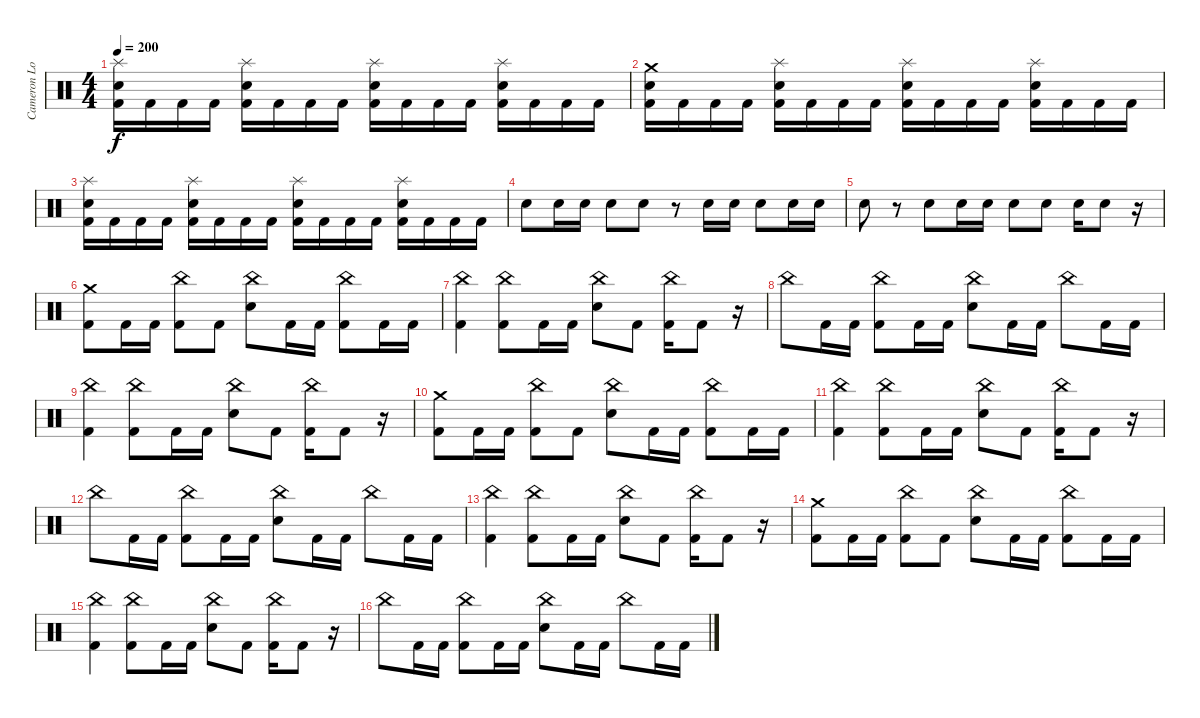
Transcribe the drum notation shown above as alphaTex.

\track ("Cameron Losch - drums" "Cameron Lo") {instrument percussion}
\staff {score}
\articulation defaults
\ts (4 4)
\tempo 200
\clef neutral
\ks c
("Splash (hit)" "Electric Snare (hit)" "Kick (hit) 2").16{dy f} "Kick (hit) 2".16 "Kick (hit) 2".16 "Kick (hit) 2".16 ("Splash (hit)" "Electric Snare (hit)" "Kick (hit) 2").16 "Kick (hit) 2".16 "Kick (hit) 2".16 "Kick (hit) 2".16 ("Splash (hit)" "Electric Snare (hit)" "Kick (hit) 2").16 "Kick (hit) 2".16 "Kick (hit) 2".16 "Kick (hit) 2".16 ("Splash (hit)" "Electric Snare (hit)" "Kick (hit) 2").16 "Kick (hit) 2".16 "Kick (hit) 2".16 "Kick (hit) 2".16 |
("Crash medium (hit)" "Electric Snare (hit)" "Kick (hit) 2").16 "Kick (hit) 2".16 "Kick (hit) 2".16 "Kick (hit) 2".16 ("Splash (hit)" "Electric Snare (hit)" "Kick (hit) 2").16 "Kick (hit) 2".16 "Kick (hit) 2".16 "Kick (hit) 2".16 ("Splash (hit)" "Electric Snare (hit)" "Kick (hit) 2").16 "Kick (hit) 2".16 "Kick (hit) 2".16 "Kick (hit) 2".16 ("Splash (hit)" "Electric Snare (hit)" "Kick (hit) 2").16 "Kick (hit) 2".16 "Kick (hit) 2".16 "Kick (hit) 2".16 |
("Splash (hit)" "Electric Snare (hit)" "Kick (hit) 2").16 "Kick (hit) 2".16 "Kick (hit) 2".16 "Kick (hit) 2".16 ("Splash (hit)" "Electric Snare (hit)" "Kick (hit) 2").16 "Kick (hit) 2".16 "Kick (hit) 2".16 "Kick (hit) 2".16 ("Splash (hit)" "Electric Snare (hit)" "Kick (hit) 2").16 "Kick (hit) 2".16 "Kick (hit) 2".16 "Kick (hit) 2".16 ("Splash (hit)" "Electric Snare (hit)" "Kick (hit) 2").16 "Kick (hit) 2".16 "Kick (hit) 2".16 "Kick (hit) 2".16 |
"Electric Snare (hit)".8 "Electric Snare (hit)".16 "Electric Snare (hit)".16 "Electric Snare (hit)".8 "Electric Snare (hit)".8 r.8 "Electric Snare (hit)".16 "Electric Snare (hit)".16 "Electric Snare (hit)".8 "Electric Snare (hit)".16 "Electric Snare (hit)".16 |
"Electric Snare (hit)".8 r.8 "Electric Snare (hit)".8 "Electric Snare (hit)".16 "Electric Snare (hit)".16 "Electric Snare (hit)".8 "Electric Snare (hit)".8 "Electric Snare (hit)".16 "Electric Snare (hit)".8 r.16 |
("Crash medium (hit)" "Kick (hit) 2").8 "Kick (hit) 2".16 "Kick (hit) 2".16 ("China (hit)" "Kick (hit) 2").8 "Kick (hit) 2".8 ("China (hit)" "Electric Snare (hit)").8 "Kick (hit) 2".16 "Kick (hit) 2".16 ("China (hit)" "Kick (hit) 2").8 "Kick (hit) 2".16 "Kick (hit) 2".16 |
("China (hit)" "Kick (hit) 2").4 ("China (hit)" "Kick (hit) 2").8 "Kick (hit) 2".16 "Kick (hit) 2".16 ("China (hit)" "Electric Snare (hit)").8 "Kick (hit) 2".8 ("China (hit)" "Kick (hit) 2").16 "Kick (hit) 2".8 r.16 |
"China (hit)".8 "Kick (hit) 2".16 "Kick (hit) 2".16 ("China (hit)" "Kick (hit) 2").8 "Kick (hit) 2".16 "Kick (hit) 2".16 ("China (hit)" "Electric Snare (hit)").8 "Kick (hit) 2".16 "Kick (hit) 2".16 "China (hit)".8 "Kick (hit) 2".16 "Kick (hit) 2".16 |
("China (hit)" "Kick (hit) 2").4 ("China (hit)" "Kick (hit) 2").8 "Kick (hit) 2".16 "Kick (hit) 2".16 ("China (hit)" "Electric Snare (hit)").8 "Kick (hit) 2".8 ("China (hit)" "Kick (hit) 2").16 "Kick (hit) 2".8 r.16 |
("Crash medium (hit)" "Kick (hit) 2").8 "Kick (hit) 2".16 "Kick (hit) 2".16 ("China (hit)" "Kick (hit) 2").8 "Kick (hit) 2".8 ("China (hit)" "Electric Snare (hit)").8 "Kick (hit) 2".16 "Kick (hit) 2".16 ("China (hit)" "Kick (hit) 2").8 "Kick (hit) 2".16 "Kick (hit) 2".16 |
("China (hit)" "Kick (hit) 2").4 ("China (hit)" "Kick (hit) 2").8 "Kick (hit) 2".16 "Kick (hit) 2".16 ("China (hit)" "Electric Snare (hit)").8 "Kick (hit) 2".8 ("China (hit)" "Kick (hit) 2").16 "Kick (hit) 2".8 r.16 |
"China (hit)".8 "Kick (hit) 2".16 "Kick (hit) 2".16 ("China (hit)" "Kick (hit) 2").8 "Kick (hit) 2".16 "Kick (hit) 2".16 ("China (hit)" "Electric Snare (hit)").8 "Kick (hit) 2".16 "Kick (hit) 2".16 "China (hit)".8 "Kick (hit) 2".16 "Kick (hit) 2".16 |
("China (hit)" "Kick (hit) 2").4 ("China (hit)" "Kick (hit) 2").8 "Kick (hit) 2".16 "Kick (hit) 2".16 ("China (hit)" "Electric Snare (hit)").8 "Kick (hit) 2".8 ("China (hit)" "Kick (hit) 2").16 "Kick (hit) 2".8 r.16 |
("Crash medium (hit)" "Kick (hit) 2").8 "Kick (hit) 2".16 "Kick (hit) 2".16 ("China (hit)" "Kick (hit) 2").8 "Kick (hit) 2".8 ("China (hit)" "Electric Snare (hit)").8 "Kick (hit) 2".16 "Kick (hit) 2".16 ("China (hit)" "Kick (hit) 2").8 "Kick (hit) 2".16 "Kick (hit) 2".16 |
("China (hit)" "Kick (hit) 2").4 ("China (hit)" "Kick (hit) 2").8 "Kick (hit) 2".16 "Kick (hit) 2".16 ("China (hit)" "Electric Snare (hit)").8 "Kick (hit) 2".8 ("China (hit)" "Kick (hit) 2").16 "Kick (hit) 2".8 r.16 |
"China (hit)".8 "Kick (hit) 2".16 "Kick (hit) 2".16 ("China (hit)" "Kick (hit) 2").8 "Kick (hit) 2".16 "Kick (hit) 2".16 ("China (hit)" "Electric Snare (hit)").8 "Kick (hit) 2".16 "Kick (hit) 2".16 "China (hit)".8 "Kick (hit) 2".16 "Kick (hit) 2".16
